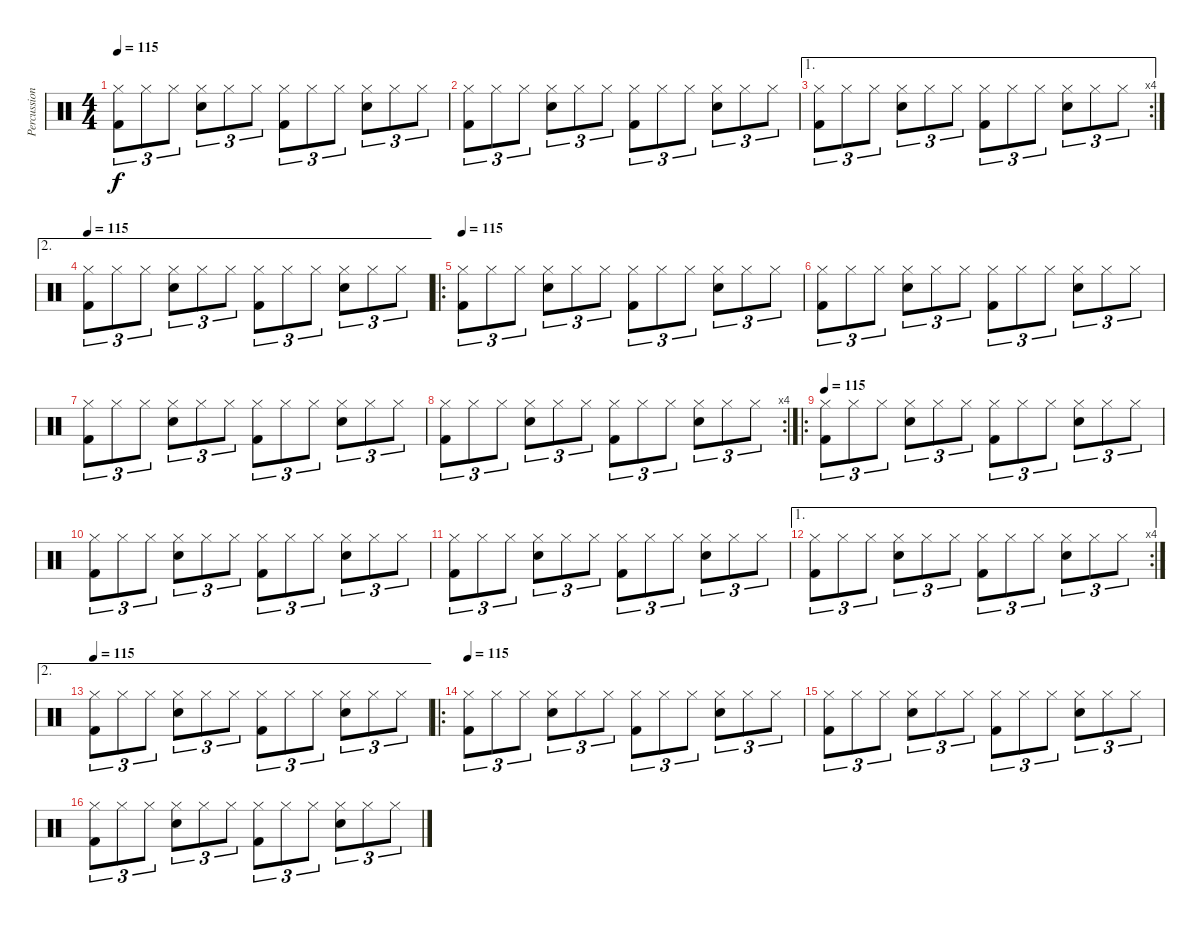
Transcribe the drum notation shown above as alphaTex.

\track ("Percussion" "Percussion") {instrument percussion}
\staff {score}
\articulation defaults
\ts (4 4)
\tempo 115
\clef neutral
\ks c
("Hi-Hat (closed)" "Kick (hit) 2").8{tu (3 2) dy f} "Hi-Hat (closed)".8{tu (3 2)} "Hi-Hat (closed)".8{tu (3 2)} ("Hi-Hat (closed)" "Snare (hit) 2").8{tu (3 2)} "Hi-Hat (closed)".8{tu (3 2)} "Hi-Hat (closed)".8{tu (3 2)} ("Hi-Hat (closed)" "Kick (hit) 2").8{tu (3 2)} "Hi-Hat (closed)".8{tu (3 2)} "Hi-Hat (closed)".8{tu (3 2)} ("Hi-Hat (closed)" "Snare (hit) 2").8{tu (3 2)} "Hi-Hat (closed)".8{tu (3 2)} "Hi-Hat (closed)".8{tu (3 2)} |
("Hi-Hat (closed)" "Kick (hit) 2").8{tu (3 2)} "Hi-Hat (closed)".8{tu (3 2)} "Hi-Hat (closed)".8{tu (3 2)} ("Hi-Hat (closed)" "Snare (hit) 2").8{tu (3 2)} "Hi-Hat (closed)".8{tu (3 2)} "Hi-Hat (closed)".8{tu (3 2)} ("Hi-Hat (closed)" "Kick (hit) 2").8{tu (3 2)} "Hi-Hat (closed)".8{tu (3 2)} "Hi-Hat (closed)".8{tu (3 2)} ("Hi-Hat (closed)" "Snare (hit) 2").8{tu (3 2)} "Hi-Hat (closed)".8{tu (3 2)} "Hi-Hat (closed)".8{tu (3 2)} |
\ae 1
\rc 4
("Hi-Hat (closed)" "Kick (hit) 2").8{tu (3 2)} "Hi-Hat (closed)".8{tu (3 2)} "Hi-Hat (closed)".8{tu (3 2)} ("Hi-Hat (closed)" "Snare (hit) 2").8{tu (3 2)} "Hi-Hat (closed)".8{tu (3 2)} "Hi-Hat (closed)".8{tu (3 2)} ("Hi-Hat (closed)" "Kick (hit) 2").8{tu (3 2)} "Hi-Hat (closed)".8{tu (3 2)} "Hi-Hat (closed)".8{tu (3 2)} ("Hi-Hat (closed)" "Snare (hit) 2").8{tu (3 2)} "Hi-Hat (closed)".8{tu (3 2)} "Hi-Hat (closed)".8{tu (3 2)} |
\ae 2
\tempo 115
("Hi-Hat (closed)" "Kick (hit) 2").8{tu (3 2)} "Hi-Hat (closed)".8{tu (3 2)} "Hi-Hat (closed)".8{tu (3 2)} ("Hi-Hat (closed)" "Snare (hit) 2").8{tu (3 2)} "Hi-Hat (closed)".8{tu (3 2)} "Hi-Hat (closed)".8{tu (3 2)} ("Hi-Hat (closed)" "Kick (hit) 2").8{tu (3 2)} "Hi-Hat (closed)".8{tu (3 2)} "Hi-Hat (closed)".8{tu (3 2)} ("Hi-Hat (closed)" "Snare (hit) 2").8{tu (3 2)} "Hi-Hat (closed)".8{tu (3 2)} "Hi-Hat (closed)".8{tu (3 2)} |
\ro
\tempo 115
("Hi-Hat (closed)" "Kick (hit) 2").8{tu (3 2)} "Hi-Hat (closed)".8{tu (3 2)} "Hi-Hat (closed)".8{tu (3 2)} ("Hi-Hat (closed)" "Snare (hit) 2").8{tu (3 2)} "Hi-Hat (closed)".8{tu (3 2)} "Hi-Hat (closed)".8{tu (3 2)} ("Hi-Hat (closed)" "Kick (hit) 2").8{tu (3 2)} "Hi-Hat (closed)".8{tu (3 2)} "Hi-Hat (closed)".8{tu (3 2)} ("Hi-Hat (closed)" "Snare (hit) 2").8{tu (3 2)} "Hi-Hat (closed)".8{tu (3 2)} "Hi-Hat (closed)".8{tu (3 2)} |
("Hi-Hat (closed)" "Kick (hit) 2").8{tu (3 2)} "Hi-Hat (closed)".8{tu (3 2)} "Hi-Hat (closed)".8{tu (3 2)} ("Hi-Hat (closed)" "Snare (hit) 2").8{tu (3 2)} "Hi-Hat (closed)".8{tu (3 2)} "Hi-Hat (closed)".8{tu (3 2)} ("Hi-Hat (closed)" "Kick (hit) 2").8{tu (3 2)} "Hi-Hat (closed)".8{tu (3 2)} "Hi-Hat (closed)".8{tu (3 2)} ("Hi-Hat (closed)" "Snare (hit) 2").8{tu (3 2)} "Hi-Hat (closed)".8{tu (3 2)} "Hi-Hat (closed)".8{tu (3 2)} |
("Hi-Hat (closed)" "Kick (hit) 2").8{tu (3 2)} "Hi-Hat (closed)".8{tu (3 2)} "Hi-Hat (closed)".8{tu (3 2)} ("Hi-Hat (closed)" "Snare (hit) 2").8{tu (3 2)} "Hi-Hat (closed)".8{tu (3 2)} "Hi-Hat (closed)".8{tu (3 2)} ("Hi-Hat (closed)" "Kick (hit) 2").8{tu (3 2)} "Hi-Hat (closed)".8{tu (3 2)} "Hi-Hat (closed)".8{tu (3 2)} ("Hi-Hat (closed)" "Snare (hit) 2").8{tu (3 2)} "Hi-Hat (closed)".8{tu (3 2)} "Hi-Hat (closed)".8{tu (3 2)} |
\rc 4
("Hi-Hat (closed)" "Kick (hit) 2").8{tu (3 2)} "Hi-Hat (closed)".8{tu (3 2)} "Hi-Hat (closed)".8{tu (3 2)} ("Hi-Hat (closed)" "Snare (hit) 2").8{tu (3 2)} "Hi-Hat (closed)".8{tu (3 2)} "Hi-Hat (closed)".8{tu (3 2)} ("Hi-Hat (closed)" "Kick (hit) 2").8{tu (3 2)} "Hi-Hat (closed)".8{tu (3 2)} "Hi-Hat (closed)".8{tu (3 2)} ("Hi-Hat (closed)" "Snare (hit) 2").8{tu (3 2)} "Hi-Hat (closed)".8{tu (3 2)} "Hi-Hat (closed)".8{tu (3 2)} |
\ro
\tempo 115
("Hi-Hat (closed)" "Kick (hit) 2").8{tu (3 2)} "Hi-Hat (closed)".8{tu (3 2)} "Hi-Hat (closed)".8{tu (3 2)} ("Hi-Hat (closed)" "Snare (hit) 2").8{tu (3 2)} "Hi-Hat (closed)".8{tu (3 2)} "Hi-Hat (closed)".8{tu (3 2)} ("Hi-Hat (closed)" "Kick (hit) 2").8{tu (3 2)} "Hi-Hat (closed)".8{tu (3 2)} "Hi-Hat (closed)".8{tu (3 2)} ("Hi-Hat (closed)" "Snare (hit) 2").8{tu (3 2)} "Hi-Hat (closed)".8{tu (3 2)} "Hi-Hat (closed)".8{tu (3 2)} |
("Hi-Hat (closed)" "Kick (hit) 2").8{tu (3 2)} "Hi-Hat (closed)".8{tu (3 2)} "Hi-Hat (closed)".8{tu (3 2)} ("Hi-Hat (closed)" "Snare (hit) 2").8{tu (3 2)} "Hi-Hat (closed)".8{tu (3 2)} "Hi-Hat (closed)".8{tu (3 2)} ("Hi-Hat (closed)" "Kick (hit) 2").8{tu (3 2)} "Hi-Hat (closed)".8{tu (3 2)} "Hi-Hat (closed)".8{tu (3 2)} ("Hi-Hat (closed)" "Snare (hit) 2").8{tu (3 2)} "Hi-Hat (closed)".8{tu (3 2)} "Hi-Hat (closed)".8{tu (3 2)} |
("Hi-Hat (closed)" "Kick (hit) 2").8{tu (3 2)} "Hi-Hat (closed)".8{tu (3 2)} "Hi-Hat (closed)".8{tu (3 2)} ("Hi-Hat (closed)" "Snare (hit) 2").8{tu (3 2)} "Hi-Hat (closed)".8{tu (3 2)} "Hi-Hat (closed)".8{tu (3 2)} ("Hi-Hat (closed)" "Kick (hit) 2").8{tu (3 2)} "Hi-Hat (closed)".8{tu (3 2)} "Hi-Hat (closed)".8{tu (3 2)} ("Hi-Hat (closed)" "Snare (hit) 2").8{tu (3 2)} "Hi-Hat (closed)".8{tu (3 2)} "Hi-Hat (closed)".8{tu (3 2)} |
\ae 1
\rc 4
("Hi-Hat (closed)" "Kick (hit) 2").8{tu (3 2)} "Hi-Hat (closed)".8{tu (3 2)} "Hi-Hat (closed)".8{tu (3 2)} ("Hi-Hat (closed)" "Snare (hit) 2").8{tu (3 2)} "Hi-Hat (closed)".8{tu (3 2)} "Hi-Hat (closed)".8{tu (3 2)} ("Hi-Hat (closed)" "Kick (hit) 2").8{tu (3 2)} "Hi-Hat (closed)".8{tu (3 2)} "Hi-Hat (closed)".8{tu (3 2)} ("Hi-Hat (closed)" "Snare (hit) 2").8{tu (3 2)} "Hi-Hat (closed)".8{tu (3 2)} "Hi-Hat (closed)".8{tu (3 2)} |
\ae 2
\tempo 115
("Hi-Hat (closed)" "Kick (hit) 2").8{tu (3 2)} "Hi-Hat (closed)".8{tu (3 2)} "Hi-Hat (closed)".8{tu (3 2)} ("Hi-Hat (closed)" "Snare (hit) 2").8{tu (3 2)} "Hi-Hat (closed)".8{tu (3 2)} "Hi-Hat (closed)".8{tu (3 2)} ("Hi-Hat (closed)" "Kick (hit) 2").8{tu (3 2)} "Hi-Hat (closed)".8{tu (3 2)} "Hi-Hat (closed)".8{tu (3 2)} ("Hi-Hat (closed)" "Snare (hit) 2").8{tu (3 2)} "Hi-Hat (closed)".8{tu (3 2)} "Hi-Hat (closed)".8{tu (3 2)} |
\ro
\tempo 115
("Hi-Hat (closed)" "Kick (hit) 2").8{tu (3 2)} "Hi-Hat (closed)".8{tu (3 2)} "Hi-Hat (closed)".8{tu (3 2)} ("Hi-Hat (closed)" "Snare (hit) 2").8{tu (3 2)} "Hi-Hat (closed)".8{tu (3 2)} "Hi-Hat (closed)".8{tu (3 2)} ("Hi-Hat (closed)" "Kick (hit) 2").8{tu (3 2)} "Hi-Hat (closed)".8{tu (3 2)} "Hi-Hat (closed)".8{tu (3 2)} ("Hi-Hat (closed)" "Snare (hit) 2").8{tu (3 2)} "Hi-Hat (closed)".8{tu (3 2)} "Hi-Hat (closed)".8{tu (3 2)} |
("Hi-Hat (closed)" "Kick (hit) 2").8{tu (3 2)} "Hi-Hat (closed)".8{tu (3 2)} "Hi-Hat (closed)".8{tu (3 2)} ("Hi-Hat (closed)" "Snare (hit) 2").8{tu (3 2)} "Hi-Hat (closed)".8{tu (3 2)} "Hi-Hat (closed)".8{tu (3 2)} ("Hi-Hat (closed)" "Kick (hit) 2").8{tu (3 2)} "Hi-Hat (closed)".8{tu (3 2)} "Hi-Hat (closed)".8{tu (3 2)} ("Hi-Hat (closed)" "Snare (hit) 2").8{tu (3 2)} "Hi-Hat (closed)".8{tu (3 2)} "Hi-Hat (closed)".8{tu (3 2)} |
("Hi-Hat (closed)" "Kick (hit) 2").8{tu (3 2)} "Hi-Hat (closed)".8{tu (3 2)} "Hi-Hat (closed)".8{tu (3 2)} ("Hi-Hat (closed)" "Snare (hit) 2").8{tu (3 2)} "Hi-Hat (closed)".8{tu (3 2)} "Hi-Hat (closed)".8{tu (3 2)} ("Hi-Hat (closed)" "Kick (hit) 2").8{tu (3 2)} "Hi-Hat (closed)".8{tu (3 2)} "Hi-Hat (closed)".8{tu (3 2)} ("Hi-Hat (closed)" "Snare (hit) 2").8{tu (3 2)} "Hi-Hat (closed)".8{tu (3 2)} "Hi-Hat (closed)".8{tu (3 2)}
